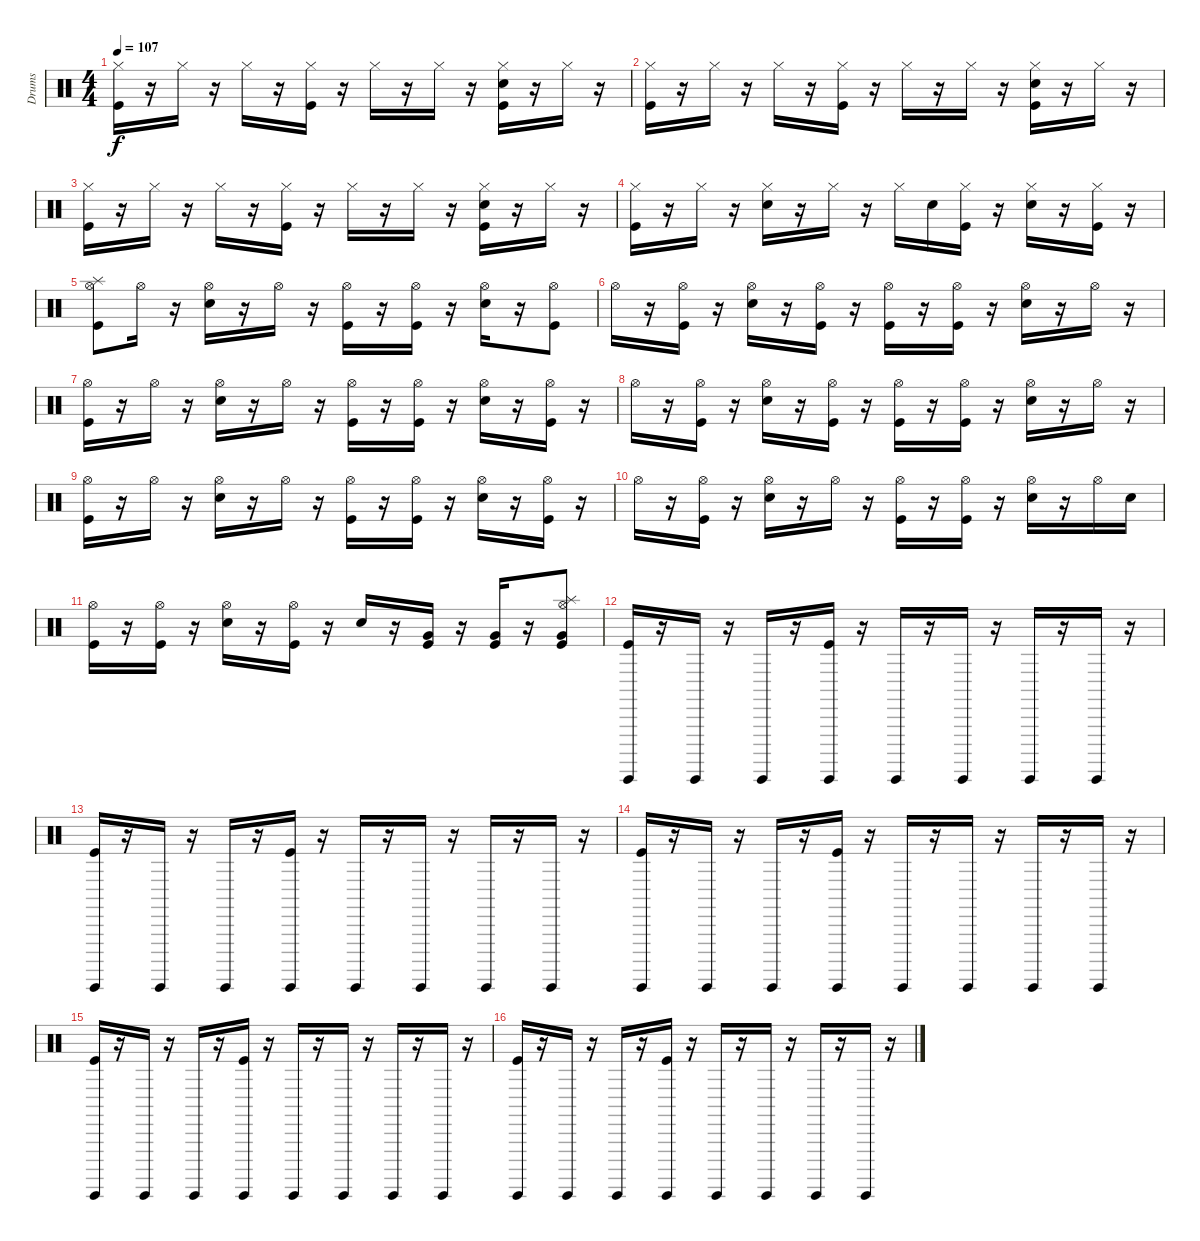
\track ("Drums" "Drums") {instrument percussion}
\staff {score}
\articulation defaults
\ts (4 4)
\tempo 107
\clef neutral
\ks c
("Hi-Hat (closed)" "Kick (hit)").16{dy f} r.16 "Hi-Hat (closed)".16 r.16 "Hi-Hat (closed)".16 r.16 ("Hi-Hat (closed)" "Kick (hit)").16 r.16 "Hi-Hat (closed)".16 r.16 "Hi-Hat (closed)".16 r.16 ("Hi-Hat (closed)" "Kick (hit)" "Electric Snare (hit)").16 r.16 "Hi-Hat (closed)".16 r.16 |
("Hi-Hat (closed)" "Kick (hit)").16 r.16 "Hi-Hat (closed)".16 r.16 "Hi-Hat (closed)".16 r.16 ("Hi-Hat (closed)" "Kick (hit)").16 r.16 "Hi-Hat (closed)".16 r.16 "Hi-Hat (closed)".16 r.16 ("Electric Snare (hit)" "Kick (hit)" "Hi-Hat (closed)").16 r.16 "Hi-Hat (closed)".16 r.16 |
("Kick (hit)" "Hi-Hat (closed)").16 r.16 "Hi-Hat (closed)".16 r.16 "Hi-Hat (closed)".16 r.16 ("Hi-Hat (closed)" "Kick (hit)").16 r.16 "Hi-Hat (closed)".16 r.16 "Hi-Hat (closed)".16 r.16 ("Electric Snare (hit)" "Hi-Hat (closed)" "Kick (hit)").16 r.16 "Hi-Hat (closed)".16 r.16 |
("Hi-Hat (closed)" "Kick (hit)").16 r.16 "Hi-Hat (closed)".16 r.16 ("Hi-Hat (closed)" "Electric Snare (hit)").16 r.16 "Hi-Hat (closed)".16 r.16 "Hi-Hat (closed)".16 "Electric Snare (hit)".16 ("Hi-Hat (closed)" "Kick (hit)").16 r.16 ("Hi-Hat (closed)" "Electric Snare (hit)").16 r.16 ("Kick (hit)" "Hi-Hat (closed)").16 r.16 |
("Hi-Hat (open)" "Splash (hit)" "Kick (hit)").8 "Hi-Hat (open)".16 r.16 ("Hi-Hat (open)" "Electric Snare (hit)").16 r.16 "Hi-Hat (open)".16 r.16 ("Kick (hit)" "Hi-Hat (open)").16 r.16 ("Kick (hit)" "Hi-Hat (open)").16 r.16 ("Electric Snare (hit)" "Hi-Hat (open)").16 r.16 ("Kick (hit)" "Hi-Hat (open)").8 |
"Hi-Hat (open)".16 r.16 ("Kick (hit)" "Hi-Hat (open)").16 r.16 ("Electric Snare (hit)" "Hi-Hat (open)").16 r.16 ("Hi-Hat (open)" "Kick (hit)").16 r.16 ("Kick (hit)" "Hi-Hat (open)").16 r.16 ("Hi-Hat (open)" "Kick (hit)").16 r.16 ("Electric Snare (hit)" "Hi-Hat (open)").16 r.16 "Hi-Hat (open)".16 r.16 |
("Hi-Hat (open)" "Kick (hit)").16 r.16 "Hi-Hat (open)".16 r.16 ("Electric Snare (hit)" "Hi-Hat (open)").16 r.16 "Hi-Hat (open)".16 r.16 ("Kick (hit)" "Hi-Hat (open)").16 r.16 ("Kick (hit)" "Hi-Hat (open)").16 r.16 ("Hi-Hat (open)" "Electric Snare (hit)").16 r.16 ("Kick (hit)" "Hi-Hat (open)").16 r.16 |
"Hi-Hat (open)".16 r.16 ("Hi-Hat (open)" "Kick (hit)").16 r.16 ("Electric Snare (hit)" "Hi-Hat (open)").16 r.16 ("Hi-Hat (open)" "Kick (hit)").16 r.16 ("Kick (hit)" "Hi-Hat (open)").16 r.16 ("Hi-Hat (open)" "Kick (hit)").16 r.16 ("Electric Snare (hit)" "Hi-Hat (open)").16 r.16 "Hi-Hat (open)".16 r.16 |
("Kick (hit)" "Hi-Hat (open)").16 r.16 "Hi-Hat (open)".16 r.16 ("Hi-Hat (open)" "Electric Snare (hit)").16 r.16 "Hi-Hat (open)".16 r.16 ("Hi-Hat (open)" "Kick (hit)").16 r.16 ("Kick (hit)" "Hi-Hat (open)").16 r.16 ("Electric Snare (hit)" "Hi-Hat (open)").16 r.16 ("Hi-Hat (open)" "Kick (hit)").16 r.16 |
"Hi-Hat (open)".16 r.16 ("Kick (hit)" "Hi-Hat (open)").16 r.16 ("Electric Snare (hit)" "Hi-Hat (open)").16 r.16 "Hi-Hat (open)".16 r.16 ("Hi-Hat (open)" "Kick (hit)").16 r.16 ("Kick (hit)" "Hi-Hat (open)").16 r.16 ("Hi-Hat (open)" "Electric Snare (hit)").16 r.16 "Hi-Hat (open)".16 "Electric Snare (hit)".16 |
("Hi-Hat (open)" "Kick (hit)").16 r.16 ("Hi-Hat (open)" "Kick (hit)").16 r.16 ("Hi-Hat (open)" "Electric Snare (hit)").16 r.16 ("Hi-Hat (open)" "Kick (hit)").16 r.16 "Electric Snare (hit)".16 r.16 ("Very Low Tom (hit)" "Kick (hit)").16 r.16 ("Kick (hit)" "Very Low Tom (hit)").16 r.16 ("Splash (hit)" "Kick (hit)" "Hi-Hat (open)" "Very Low Tom (hit)").8 |
("Kick (hit)" "Guiro (hit)").16 r.16 "Guiro (hit)".16 r.16 "Guiro (hit)".16 r.16 ("Guiro (hit)" "Kick (hit)").16 r.16 "Guiro (hit)".16 r.16 "Guiro (hit)".16 r.16 "Guiro (hit)".16 r.16 "Guiro (hit)".16 r.16 |
("Guiro (hit)" "Kick (hit)").16 r.16 "Guiro (hit)".16 r.16 "Guiro (hit)".16 r.16 ("Kick (hit)" "Guiro (hit)").16 r.16 "Guiro (hit)".16 r.16 "Guiro (hit)".16 r.16 "Guiro (hit)".16 r.16 "Guiro (hit)".16 r.16 |
("Kick (hit)" "Guiro (hit)").16 r.16 "Guiro (hit)".16 r.16 "Guiro (hit)".16 r.16 ("Guiro (hit)" "Kick (hit)").16 r.16 "Guiro (hit)".16 r.16 "Guiro (hit)".16 r.16 "Guiro (hit)".16 r.16 "Guiro (hit)".16 r.16 |
("Guiro (hit)" "Kick (hit)").16 r.16 "Guiro (hit)".16 r.16 "Guiro (hit)".16 r.16 ("Kick (hit)" "Guiro (hit)").16 r.16 "Guiro (hit)".16 r.16 "Guiro (hit)".16 r.16 "Guiro (hit)".16 r.16 "Guiro (hit)".16 r.16 |
("Guiro (hit)" "Kick (hit)").16 r.16 "Guiro (hit)".16 r.16 "Guiro (hit)".16 r.16 ("Guiro (hit)" "Kick (hit)").16 r.16 "Guiro (hit)".16 r.16 "Guiro (hit)".16 r.16 "Guiro (hit)".16 r.16 "Guiro (hit)".16 r.16
